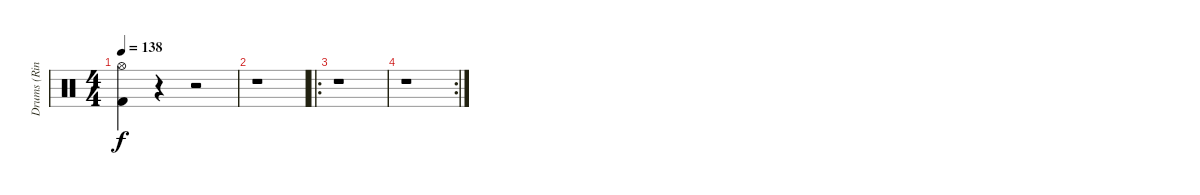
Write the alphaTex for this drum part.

\track ("Drums (Ringo Starr)" "Drums (Rin") {instrument percussion}
\staff {score}
\articulation defaults
\ts (4 4)
\tempo 138
\clef neutral
\ks c
("Hi-Hat (open)" "Kick (hit) 2").4{dy f} r.4 r.2 |
r.1 |
\ro
r.1 |
\rc 2
r.1
